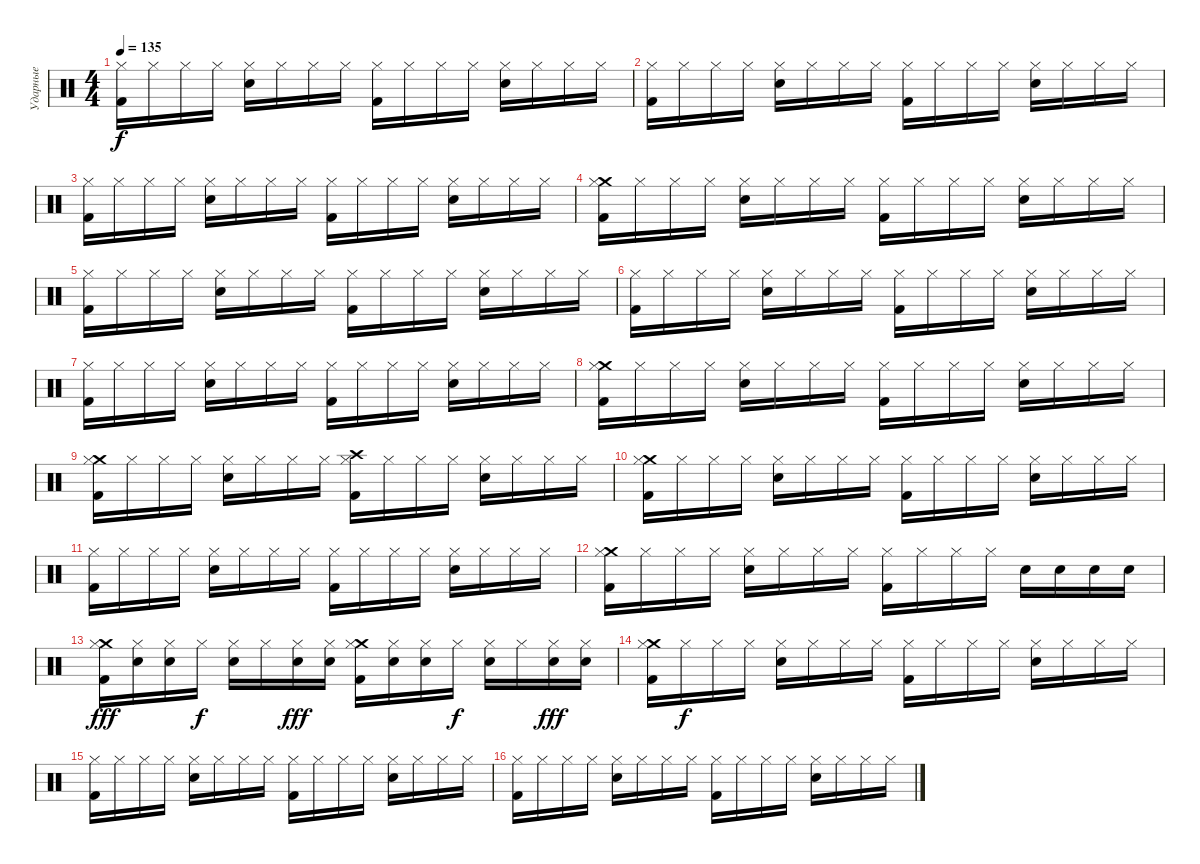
\track ("Ударные" "Ударные") {instrument percussion}
\staff {score}
\articulation defaults
\ts (4 4)
\tempo 135
\clef neutral
\ks c
("Hi-Hat (closed)" "Kick (hit) 2").16{dy f} "Hi-Hat (closed)".16 "Hi-Hat (closed)".16 "Hi-Hat (closed)".16 ("Hi-Hat (closed)" "Snare (hit) 2").16 "Hi-Hat (closed)".16 "Hi-Hat (closed)".16 "Hi-Hat (closed)".16 ("Hi-Hat (closed)" "Kick (hit) 2").16 "Hi-Hat (closed)".16 "Hi-Hat (closed)".16 "Hi-Hat (closed)".16 ("Hi-Hat (closed)" "Snare (hit) 2").16 "Hi-Hat (closed)".16 "Hi-Hat (closed)".16 "Hi-Hat (closed)".16 |
("Hi-Hat (closed)" "Kick (hit) 2").16 "Hi-Hat (closed)".16 "Hi-Hat (closed)".16 "Hi-Hat (closed)".16 ("Hi-Hat (closed)" "Snare (hit) 2").16 "Hi-Hat (closed)".16 "Hi-Hat (closed)".16 "Hi-Hat (closed)".16 ("Hi-Hat (closed)" "Kick (hit) 2").16 "Hi-Hat (closed)".16 "Hi-Hat (closed)".16 "Hi-Hat (closed)".16 ("Hi-Hat (closed)" "Snare (hit) 2").16 "Hi-Hat (closed)".16 "Hi-Hat (closed)".16 "Hi-Hat (closed)".16 |
("Hi-Hat (closed)" "Kick (hit) 2").16 "Hi-Hat (closed)".16 "Hi-Hat (closed)".16 "Hi-Hat (closed)".16 ("Hi-Hat (closed)" "Snare (hit) 2").16 "Hi-Hat (closed)".16 "Hi-Hat (closed)".16 "Hi-Hat (closed)".16 ("Hi-Hat (closed)" "Kick (hit) 2").16 "Hi-Hat (closed)".16 "Hi-Hat (closed)".16 "Hi-Hat (closed)".16 ("Hi-Hat (closed)" "Snare (hit) 2").16 "Hi-Hat (closed)".16 "Hi-Hat (closed)".16 "Hi-Hat (closed)".16 |
("Crash medium (hit)" "Hi-Hat (closed)" "Kick (hit) 2").16 "Hi-Hat (closed)".16 "Hi-Hat (closed)".16 "Hi-Hat (closed)".16 ("Hi-Hat (closed)" "Snare (hit) 2").16 "Hi-Hat (closed)".16 "Hi-Hat (closed)".16 "Hi-Hat (closed)".16 ("Hi-Hat (closed)" "Kick (hit) 2").16 "Hi-Hat (closed)".16 "Hi-Hat (closed)".16 "Hi-Hat (closed)".16 ("Hi-Hat (closed)" "Snare (hit) 2").16 "Hi-Hat (closed)".16 "Hi-Hat (closed)".16 "Hi-Hat (closed)".16 |
("Hi-Hat (closed)" "Kick (hit) 2").16 "Hi-Hat (closed)".16 "Hi-Hat (closed)".16 "Hi-Hat (closed)".16 ("Hi-Hat (closed)" "Snare (hit) 2").16 "Hi-Hat (closed)".16 "Hi-Hat (closed)".16 "Hi-Hat (closed)".16 ("Hi-Hat (closed)" "Kick (hit) 2").16 "Hi-Hat (closed)".16 "Hi-Hat (closed)".16 "Hi-Hat (closed)".16 ("Hi-Hat (closed)" "Snare (hit) 2").16 "Hi-Hat (closed)".16 "Hi-Hat (closed)".16 "Hi-Hat (closed)".16 |
("Hi-Hat (closed)" "Kick (hit) 2").16 "Hi-Hat (closed)".16 "Hi-Hat (closed)".16 "Hi-Hat (closed)".16 ("Hi-Hat (closed)" "Snare (hit) 2").16 "Hi-Hat (closed)".16 "Hi-Hat (closed)".16 "Hi-Hat (closed)".16 ("Hi-Hat (closed)" "Kick (hit) 2").16 "Hi-Hat (closed)".16 "Hi-Hat (closed)".16 "Hi-Hat (closed)".16 ("Hi-Hat (closed)" "Snare (hit) 2").16 "Hi-Hat (closed)".16 "Hi-Hat (closed)".16 "Hi-Hat (closed)".16 |
("Hi-Hat (closed)" "Kick (hit) 2").16 "Hi-Hat (closed)".16 "Hi-Hat (closed)".16 "Hi-Hat (closed)".16 ("Hi-Hat (closed)" "Snare (hit) 2").16 "Hi-Hat (closed)".16 "Hi-Hat (closed)".16 "Hi-Hat (closed)".16 ("Hi-Hat (closed)" "Kick (hit) 2").16 "Hi-Hat (closed)".16 "Hi-Hat (closed)".16 "Hi-Hat (closed)".16 ("Hi-Hat (closed)" "Snare (hit) 2").16 "Hi-Hat (closed)".16 "Hi-Hat (closed)".16 "Hi-Hat (closed)".16 |
("Crash medium (hit)" "Hi-Hat (closed)" "Kick (hit) 2").16 "Hi-Hat (closed)".16 "Hi-Hat (closed)".16 "Hi-Hat (closed)".16 ("Hi-Hat (closed)" "Snare (hit) 2").16 "Hi-Hat (closed)".16 "Hi-Hat (closed)".16 "Hi-Hat (closed)".16 ("Hi-Hat (closed)" "Kick (hit) 2").16 "Hi-Hat (closed)".16 "Hi-Hat (closed)".16 "Hi-Hat (closed)".16 ("Hi-Hat (closed)" "Snare (hit) 2").16 "Hi-Hat (closed)".16 "Hi-Hat (closed)".16 "Hi-Hat (closed)".16 |
("Crash medium (hit)" "Hi-Hat (closed)" "Kick (hit) 2").16 "Hi-Hat (closed)".16 "Hi-Hat (closed)".16 "Hi-Hat (closed)".16 ("Hi-Hat (closed)" "Snare (hit) 2").16 "Hi-Hat (closed)".16 "Hi-Hat (closed)".16 "Hi-Hat (closed)".16 ("Crash high (hit)" "Hi-Hat (closed)" "Kick (hit) 2").16 "Hi-Hat (closed)".16 "Hi-Hat (closed)".16 "Hi-Hat (closed)".16 ("Hi-Hat (closed)" "Snare (hit) 2").16 "Hi-Hat (closed)".16 "Hi-Hat (closed)".16 "Hi-Hat (closed)".16 |
("Crash medium (hit)" "Hi-Hat (closed)" "Kick (hit) 2").16 "Hi-Hat (closed)".16 "Hi-Hat (closed)".16 "Hi-Hat (closed)".16 ("Hi-Hat (closed)" "Snare (hit) 2").16 "Hi-Hat (closed)".16 "Hi-Hat (closed)".16 "Hi-Hat (closed)".16 ("Hi-Hat (closed)" "Kick (hit) 2").16 "Hi-Hat (closed)".16 "Hi-Hat (closed)".16 "Hi-Hat (closed)".16 ("Hi-Hat (closed)" "Snare (hit) 2").16 "Hi-Hat (closed)".16 "Hi-Hat (closed)".16 "Hi-Hat (closed)".16 |
("Hi-Hat (closed)" "Kick (hit) 2").16 "Hi-Hat (closed)".16 "Hi-Hat (closed)".16 "Hi-Hat (closed)".16 ("Hi-Hat (closed)" "Snare (hit) 2").16 "Hi-Hat (closed)".16 "Hi-Hat (closed)".16 "Hi-Hat (closed)".16 ("Hi-Hat (closed)" "Kick (hit) 2").16 "Hi-Hat (closed)".16 "Hi-Hat (closed)".16 "Hi-Hat (closed)".16 ("Hi-Hat (closed)" "Snare (hit) 2").16 "Hi-Hat (closed)".16 "Hi-Hat (closed)".16 "Hi-Hat (closed)".16 |
("Crash medium (hit)" "Hi-Hat (closed)" "Kick (hit) 2").16 "Hi-Hat (closed)".16 "Hi-Hat (closed)".16 "Hi-Hat (closed)".16 ("Hi-Hat (closed)" "Snare (hit) 2").16 "Hi-Hat (closed)".16 "Hi-Hat (closed)".16 "Hi-Hat (closed)".16 ("Hi-Hat (closed)" "Kick (hit) 2").16 "Hi-Hat (closed)".16 "Hi-Hat (closed)".16 "Hi-Hat (closed)".16 "Snare (hit) 2".16 "Snare (hit) 2".16 "Snare (hit) 2".16 "Snare (hit) 2".16 |
("Crash medium (hit)" "Hi-Hat (closed)" "Kick (hit) 2").16{dy fff} ("Hi-Hat (closed)" "Snare (hit) 2").16 ("Hi-Hat (closed)" "Snare (hit) 2").16 "Hi-Hat (closed)".16{dy f} ("Hi-Hat (closed)" "Snare (hit) 2").16 "Hi-Hat (closed)".16 ("Hi-Hat (closed)" "Snare (hit) 2").16{dy fff} ("Hi-Hat (closed)" "Snare (hit) 2").16 ("Crash medium (hit)" "Hi-Hat (closed)" "Kick (hit) 2").16 ("Hi-Hat (closed)" "Snare (hit) 2").16 ("Hi-Hat (closed)" "Snare (hit) 2").16 "Hi-Hat (closed)".16{dy f} ("Hi-Hat (closed)" "Snare (hit) 2").16 "Hi-Hat (closed)".16 ("Hi-Hat (closed)" "Snare (hit) 2").16{dy fff} ("Hi-Hat (closed)" "Snare (hit) 2").16 |
("Crash medium (hit)" "Hi-Hat (closed)" "Kick (hit) 2").16 "Hi-Hat (closed)".16{dy f} "Hi-Hat (closed)".16 "Hi-Hat (closed)".16 ("Hi-Hat (closed)" "Snare (hit) 2").16 "Hi-Hat (closed)".16 "Hi-Hat (closed)".16 "Hi-Hat (closed)".16 ("Hi-Hat (closed)" "Kick (hit) 2").16 "Hi-Hat (closed)".16 "Hi-Hat (closed)".16 "Hi-Hat (closed)".16 ("Hi-Hat (closed)" "Snare (hit) 2").16 "Hi-Hat (closed)".16 "Hi-Hat (closed)".16 "Hi-Hat (closed)".16 |
("Hi-Hat (closed)" "Kick (hit) 2").16 "Hi-Hat (closed)".16 "Hi-Hat (closed)".16 "Hi-Hat (closed)".16 ("Hi-Hat (closed)" "Snare (hit) 2").16 "Hi-Hat (closed)".16 "Hi-Hat (closed)".16 "Hi-Hat (closed)".16 ("Hi-Hat (closed)" "Kick (hit) 2").16 "Hi-Hat (closed)".16 "Hi-Hat (closed)".16 "Hi-Hat (closed)".16 ("Hi-Hat (closed)" "Snare (hit) 2").16 "Hi-Hat (closed)".16 "Hi-Hat (closed)".16 "Hi-Hat (closed)".16 |
("Hi-Hat (closed)" "Kick (hit) 2").16 "Hi-Hat (closed)".16 "Hi-Hat (closed)".16 "Hi-Hat (closed)".16 ("Hi-Hat (closed)" "Snare (hit) 2").16 "Hi-Hat (closed)".16 "Hi-Hat (closed)".16 "Hi-Hat (closed)".16 ("Hi-Hat (closed)" "Kick (hit) 2").16 "Hi-Hat (closed)".16 "Hi-Hat (closed)".16 "Hi-Hat (closed)".16 ("Hi-Hat (closed)" "Snare (hit) 2").16 "Hi-Hat (closed)".16 "Hi-Hat (closed)".16 "Hi-Hat (closed)".16
